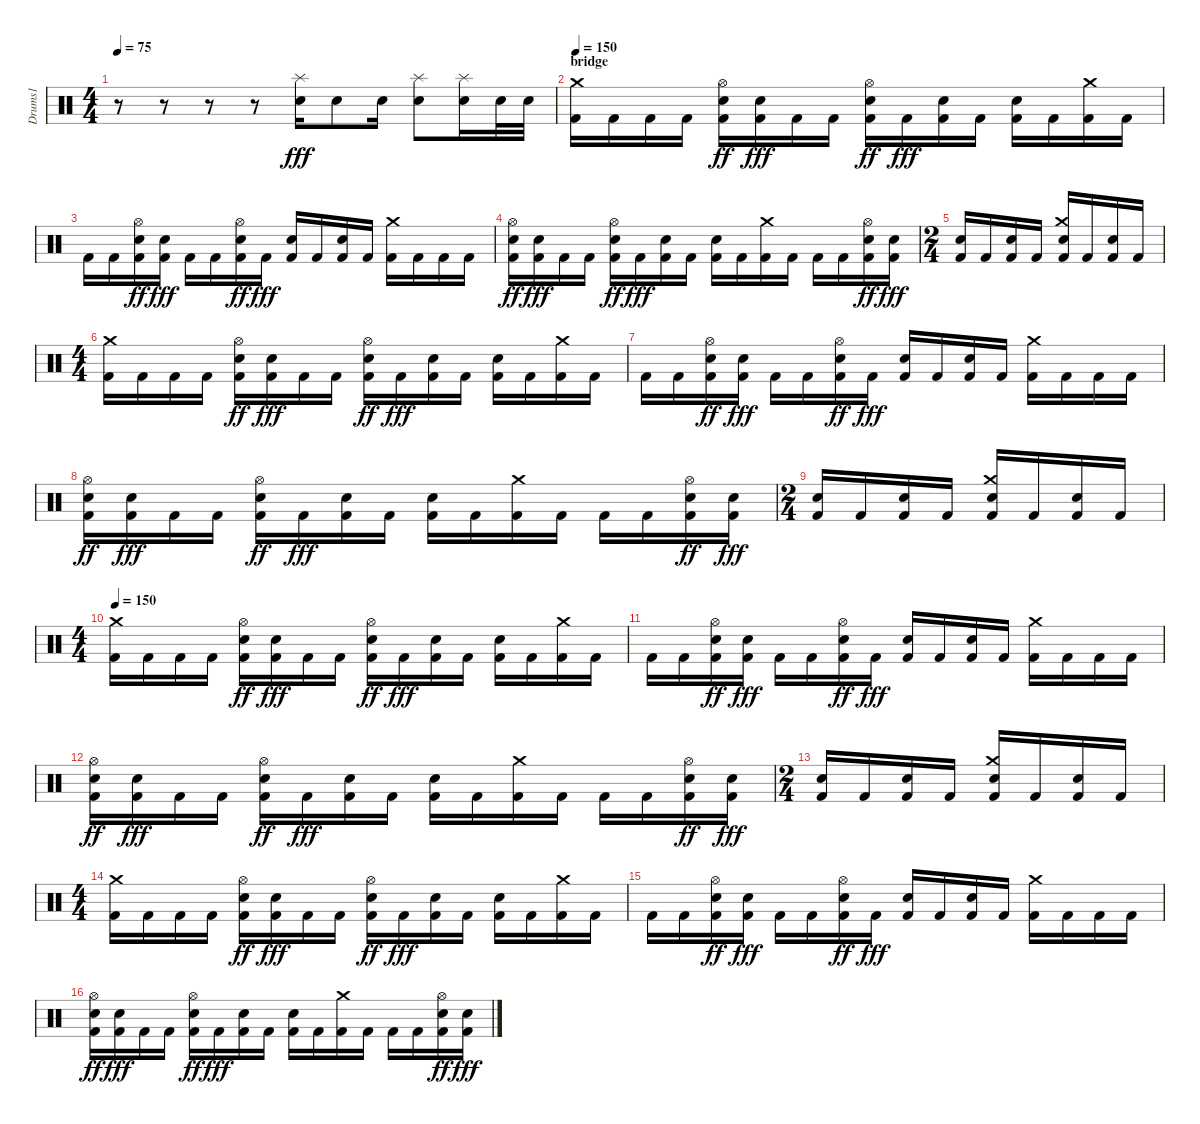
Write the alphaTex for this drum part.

\track ("Drums1" "Drums1") {instrument percussion}
\staff {score}
\articulation defaults
\ts (4 4)
\tempo 75
\clef neutral
\ks c
r.8{dy fff} r.8 r.8 r.8 ("Splash (hit)" "Electric Snare (hit)").16 "Electric Snare (hit)".8 "Electric Snare (hit)".16 ("Electric Snare (hit)" "Splash (hit)").8 ("Electric Snare (hit)" "Splash (hit)").16 "Electric Snare (hit)".32 "Electric Snare (hit)".32 |
\section ("" "bridge")
\tempo 150
("Crash medium (hit)" "Kick (hit) 2").16 "Kick (hit) 2".16 "Kick (hit) 2".16 "Kick (hit) 2".16 ("Electric Snare (hit)" "Kick (hit) 2" "Hi-Hat (open)").16{dy ff} ("Electric Snare (hit)" "Kick (hit) 2").16{dy fff} "Kick (hit) 2".16 "Kick (hit) 2".16 ("Electric Snare (hit)" "Kick (hit) 2" "Hi-Hat (open)").16{dy ff} "Kick (hit) 2".16{dy fff} ("Electric Snare (hit)" "Kick (hit) 2").16 "Kick (hit) 2".16 ("Electric Snare (hit)" "Kick (hit) 2").16 "Kick (hit) 2".16 ("Crash medium (hit)" "Kick (hit) 2").16 "Kick (hit) 2".16 |
"Kick (hit) 2".16 "Kick (hit) 2".16 ("Electric Snare (hit)" "Kick (hit) 2" "Hi-Hat (open)").16{dy ff} ("Electric Snare (hit)" "Kick (hit) 2").16{dy fff} "Kick (hit) 2".16 "Kick (hit) 2".16 ("Electric Snare (hit)" "Kick (hit) 2" "Hi-Hat (open)").16{dy ff} "Kick (hit) 2".16{dy fff} ("Electric Snare (hit)" "Kick (hit) 2").16 "Kick (hit) 2".16 ("Electric Snare (hit)" "Kick (hit) 2").16 "Kick (hit) 2".16 ("Crash medium (hit)" "Kick (hit) 2").16 "Kick (hit) 2".16 "Kick (hit) 2".16 "Kick (hit) 2".16 |
("Electric Snare (hit)" "Kick (hit) 2" "Hi-Hat (open)").16{dy ff} ("Electric Snare (hit)" "Kick (hit) 2").16{dy fff} "Kick (hit) 2".16 "Kick (hit) 2".16 ("Electric Snare (hit)" "Kick (hit) 2" "Hi-Hat (open)").16{dy ff} "Kick (hit) 2".16{dy fff} ("Electric Snare (hit)" "Kick (hit) 2").16 "Kick (hit) 2".16 ("Electric Snare (hit)" "Kick (hit) 2").16 "Kick (hit) 2".16 ("Crash medium (hit)" "Kick (hit) 2").16 "Kick (hit) 2".16 "Kick (hit) 2".16 "Kick (hit) 2".16 ("Electric Snare (hit)" "Kick (hit) 2" "Hi-Hat (open)").16{dy ff} ("Electric Snare (hit)" "Kick (hit) 2").16{dy fff} |
\ts (2 4)
("Kick (hit) 2" "Electric Snare (hit)").16 "Kick (hit) 2".16 ("Kick (hit) 2" "Electric Snare (hit)").16 "Kick (hit) 2".16 ("Kick (hit) 2" "Electric Snare (hit)" "Crash medium (hit)").16 "Kick (hit) 2".16 ("Kick (hit) 2" "Electric Snare (hit)").16 "Kick (hit) 2".16 |
\ts (4 4)
("Crash medium (hit)" "Kick (hit) 2").16 "Kick (hit) 2".16 "Kick (hit) 2".16 "Kick (hit) 2".16 ("Electric Snare (hit)" "Kick (hit) 2" "Hi-Hat (open)").16{dy ff} ("Electric Snare (hit)" "Kick (hit) 2").16{dy fff} "Kick (hit) 2".16 "Kick (hit) 2".16 ("Electric Snare (hit)" "Kick (hit) 2" "Hi-Hat (open)").16{dy ff} "Kick (hit) 2".16{dy fff} ("Electric Snare (hit)" "Kick (hit) 2").16 "Kick (hit) 2".16 ("Electric Snare (hit)" "Kick (hit) 2").16 "Kick (hit) 2".16 ("Crash medium (hit)" "Kick (hit) 2").16 "Kick (hit) 2".16 |
"Kick (hit) 2".16 "Kick (hit) 2".16 ("Electric Snare (hit)" "Kick (hit) 2" "Hi-Hat (open)").16{dy ff} ("Electric Snare (hit)" "Kick (hit) 2").16{dy fff} "Kick (hit) 2".16 "Kick (hit) 2".16 ("Electric Snare (hit)" "Kick (hit) 2" "Hi-Hat (open)").16{dy ff} "Kick (hit) 2".16{dy fff} ("Electric Snare (hit)" "Kick (hit) 2").16 "Kick (hit) 2".16 ("Electric Snare (hit)" "Kick (hit) 2").16 "Kick (hit) 2".16 ("Crash medium (hit)" "Kick (hit) 2").16 "Kick (hit) 2".16 "Kick (hit) 2".16 "Kick (hit) 2".16 |
("Electric Snare (hit)" "Kick (hit) 2" "Hi-Hat (open)").16{dy ff} ("Electric Snare (hit)" "Kick (hit) 2").16{dy fff} "Kick (hit) 2".16 "Kick (hit) 2".16 ("Electric Snare (hit)" "Kick (hit) 2" "Hi-Hat (open)").16{dy ff} "Kick (hit) 2".16{dy fff} ("Electric Snare (hit)" "Kick (hit) 2").16 "Kick (hit) 2".16 ("Electric Snare (hit)" "Kick (hit) 2").16 "Kick (hit) 2".16 ("Crash medium (hit)" "Kick (hit) 2").16 "Kick (hit) 2".16 "Kick (hit) 2".16 "Kick (hit) 2".16 ("Electric Snare (hit)" "Kick (hit) 2" "Hi-Hat (open)").16{dy ff} ("Electric Snare (hit)" "Kick (hit) 2").16{dy fff} |
\ts (2 4)
("Kick (hit) 2" "Electric Snare (hit)").16 "Kick (hit) 2".16 ("Kick (hit) 2" "Electric Snare (hit)").16 "Kick (hit) 2".16 ("Kick (hit) 2" "Electric Snare (hit)" "Crash medium (hit)").16 "Kick (hit) 2".16 ("Kick (hit) 2" "Electric Snare (hit)").16 "Kick (hit) 2".16 |
\ts (4 4)
\tempo 150
("Crash medium (hit)" "Kick (hit) 2").16 "Kick (hit) 2".16 "Kick (hit) 2".16 "Kick (hit) 2".16 ("Electric Snare (hit)" "Kick (hit) 2" "Hi-Hat (open)").16{dy ff} ("Electric Snare (hit)" "Kick (hit) 2").16{dy fff} "Kick (hit) 2".16 "Kick (hit) 2".16 ("Electric Snare (hit)" "Kick (hit) 2" "Hi-Hat (open)").16{dy ff} "Kick (hit) 2".16{dy fff} ("Electric Snare (hit)" "Kick (hit) 2").16 "Kick (hit) 2".16 ("Electric Snare (hit)" "Kick (hit) 2").16 "Kick (hit) 2".16 ("Crash medium (hit)" "Kick (hit) 2").16 "Kick (hit) 2".16 |
"Kick (hit) 2".16 "Kick (hit) 2".16 ("Electric Snare (hit)" "Kick (hit) 2" "Hi-Hat (open)").16{dy ff} ("Electric Snare (hit)" "Kick (hit) 2").16{dy fff} "Kick (hit) 2".16 "Kick (hit) 2".16 ("Electric Snare (hit)" "Kick (hit) 2" "Hi-Hat (open)").16{dy ff} "Kick (hit) 2".16{dy fff} ("Electric Snare (hit)" "Kick (hit) 2").16 "Kick (hit) 2".16 ("Electric Snare (hit)" "Kick (hit) 2").16 "Kick (hit) 2".16 ("Crash medium (hit)" "Kick (hit) 2").16 "Kick (hit) 2".16 "Kick (hit) 2".16 "Kick (hit) 2".16 |
("Electric Snare (hit)" "Kick (hit) 2" "Hi-Hat (open)").16{dy ff} ("Electric Snare (hit)" "Kick (hit) 2").16{dy fff} "Kick (hit) 2".16 "Kick (hit) 2".16 ("Electric Snare (hit)" "Kick (hit) 2" "Hi-Hat (open)").16{dy ff} "Kick (hit) 2".16{dy fff} ("Electric Snare (hit)" "Kick (hit) 2").16 "Kick (hit) 2".16 ("Electric Snare (hit)" "Kick (hit) 2").16 "Kick (hit) 2".16 ("Crash medium (hit)" "Kick (hit) 2").16 "Kick (hit) 2".16 "Kick (hit) 2".16 "Kick (hit) 2".16 ("Electric Snare (hit)" "Kick (hit) 2" "Hi-Hat (open)").16{dy ff} ("Electric Snare (hit)" "Kick (hit) 2").16{dy fff} |
\ts (2 4)
("Kick (hit) 2" "Electric Snare (hit)").16 "Kick (hit) 2".16 ("Kick (hit) 2" "Electric Snare (hit)").16 "Kick (hit) 2".16 ("Kick (hit) 2" "Electric Snare (hit)" "Crash medium (hit)").16 "Kick (hit) 2".16 ("Kick (hit) 2" "Electric Snare (hit)").16 "Kick (hit) 2".16 |
\ts (4 4)
("Crash medium (hit)" "Kick (hit) 2").16 "Kick (hit) 2".16 "Kick (hit) 2".16 "Kick (hit) 2".16 ("Electric Snare (hit)" "Kick (hit) 2" "Hi-Hat (open)").16{dy ff} ("Electric Snare (hit)" "Kick (hit) 2").16{dy fff} "Kick (hit) 2".16 "Kick (hit) 2".16 ("Electric Snare (hit)" "Kick (hit) 2" "Hi-Hat (open)").16{dy ff} "Kick (hit) 2".16{dy fff} ("Electric Snare (hit)" "Kick (hit) 2").16 "Kick (hit) 2".16 ("Electric Snare (hit)" "Kick (hit) 2").16 "Kick (hit) 2".16 ("Crash medium (hit)" "Kick (hit) 2").16 "Kick (hit) 2".16 |
"Kick (hit) 2".16 "Kick (hit) 2".16 ("Electric Snare (hit)" "Kick (hit) 2" "Hi-Hat (open)").16{dy ff} ("Electric Snare (hit)" "Kick (hit) 2").16{dy fff} "Kick (hit) 2".16 "Kick (hit) 2".16 ("Electric Snare (hit)" "Kick (hit) 2" "Hi-Hat (open)").16{dy ff} "Kick (hit) 2".16{dy fff} ("Electric Snare (hit)" "Kick (hit) 2").16 "Kick (hit) 2".16 ("Electric Snare (hit)" "Kick (hit) 2").16 "Kick (hit) 2".16 ("Crash medium (hit)" "Kick (hit) 2").16 "Kick (hit) 2".16 "Kick (hit) 2".16 "Kick (hit) 2".16 |
("Electric Snare (hit)" "Kick (hit) 2" "Hi-Hat (open)").16{dy ff} ("Electric Snare (hit)" "Kick (hit) 2").16{dy fff} "Kick (hit) 2".16 "Kick (hit) 2".16 ("Electric Snare (hit)" "Kick (hit) 2" "Hi-Hat (open)").16{dy ff} "Kick (hit) 2".16{dy fff} ("Electric Snare (hit)" "Kick (hit) 2").16 "Kick (hit) 2".16 ("Electric Snare (hit)" "Kick (hit) 2").16 "Kick (hit) 2".16 ("Crash medium (hit)" "Kick (hit) 2").16 "Kick (hit) 2".16 "Kick (hit) 2".16 "Kick (hit) 2".16 ("Electric Snare (hit)" "Kick (hit) 2" "Hi-Hat (open)").16{dy ff} ("Electric Snare (hit)" "Kick (hit) 2").16{dy fff}
